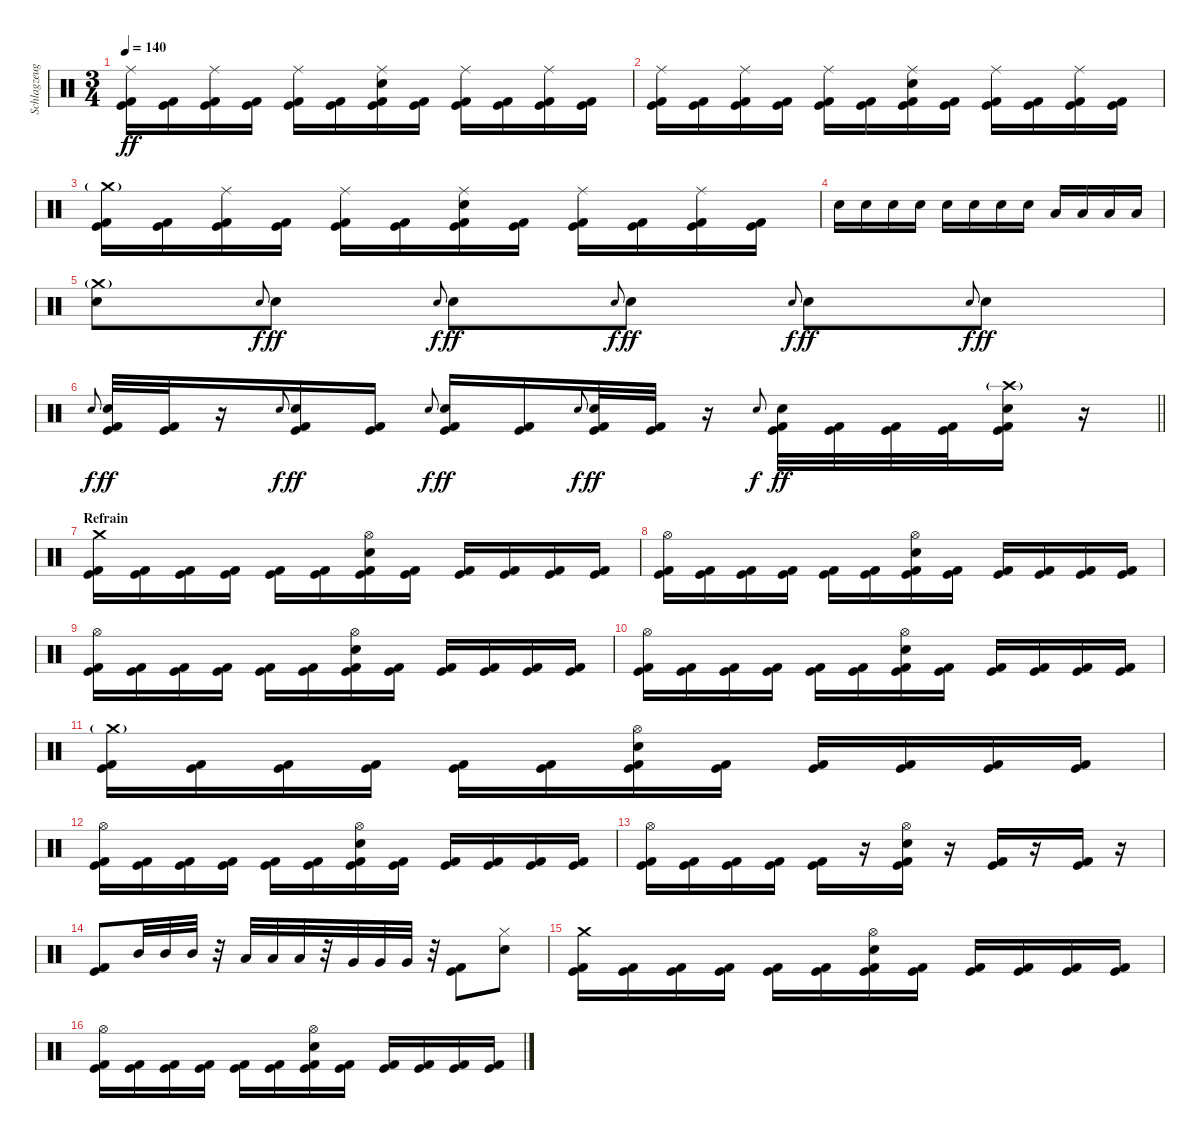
\track ("Schlagzeug" "Schlagzeug") {instrument percussion}
\staff {score}
\articulation defaults
\ts (3 4)
\tempo 140
\clef neutral
\ks c
("Ride (middle)" "Kick (hit)" "Kick (hit) 2").16{dy ff} ("Kick (hit)" "Kick (hit) 2").16 ("Ride (middle)" "Kick (hit)" "Kick (hit) 2").16 ("Kick (hit)" "Kick (hit) 2").16 ("Ride (middle)" "Kick (hit)" "Kick (hit) 2").16 ("Kick (hit)" "Kick (hit) 2").16 ("Ride (middle)" "Kick (hit)" "Kick (hit) 2" "Electric Snare (hit)").16 ("Kick (hit)" "Kick (hit) 2").16 ("Ride (middle)" "Kick (hit)" "Kick (hit) 2").16 ("Kick (hit)" "Kick (hit) 2").16 ("Ride (middle)" "Kick (hit)" "Kick (hit) 2").16 ("Kick (hit)" "Kick (hit) 2").16 |
("Ride (middle)" "Kick (hit)" "Kick (hit) 2").16 ("Kick (hit)" "Kick (hit) 2").16 ("Ride (middle)" "Kick (hit)" "Kick (hit) 2").16 ("Kick (hit)" "Kick (hit) 2").16 ("Ride (middle)" "Kick (hit)" "Kick (hit) 2").16 ("Kick (hit)" "Kick (hit) 2").16 ("Ride (middle)" "Kick (hit)" "Kick (hit) 2" "Electric Snare (hit)").16 ("Kick (hit)" "Kick (hit) 2").16 ("Ride (middle)" "Kick (hit)" "Kick (hit) 2").16 ("Kick (hit)" "Kick (hit) 2").16 ("Ride (middle)" "Kick (hit)" "Kick (hit) 2").16 ("Kick (hit)" "Kick (hit) 2").16 |
("Crash medium (hit)"{g} "Kick (hit)" "Kick (hit) 2").16 ("Kick (hit)" "Kick (hit) 2").16 ("Ride (middle)" "Kick (hit)" "Kick (hit) 2").16 ("Kick (hit)" "Kick (hit) 2").16 ("Ride (middle)" "Kick (hit)" "Kick (hit) 2").16 ("Kick (hit)" "Kick (hit) 2").16 ("Ride (middle)" "Kick (hit)" "Kick (hit) 2" "Electric Snare (hit)").16 ("Kick (hit)" "Kick (hit) 2").16 ("Ride (middle)" "Kick (hit)" "Kick (hit) 2").16 ("Kick (hit)" "Kick (hit) 2").16 ("Ride (middle)" "Kick (hit)" "Kick (hit) 2").16 ("Kick (hit)" "Kick (hit) 2").16 |
"Electric Snare (hit)".16 "Electric Snare (hit)".16 "Electric Snare (hit)".16 "Electric Snare (hit)".16 "Electric Snare (hit)".16 "Electric Snare (hit)".16 "Electric Snare (hit)".16 "Electric Snare (hit)".16 "Low Tom (hit)".16 "Low Tom (hit)".16 "Low Floor Tom (hit)".16 "Low Floor Tom (hit)".16 |
("Crash medium (hit)"{g} "Electric Snare (hit)").8 "Electric Snare (hit)".8{gr onbeat dy f} "Electric Snare (hit)".8{dy ff} "Electric Snare (hit)".8{gr onbeat dy f} "Electric Snare (hit)".8{dy ff} "Electric Snare (hit)".8{gr onbeat dy f} "Electric Snare (hit)".8{dy ff} "Electric Snare (hit)".8{gr onbeat dy f} "Electric Snare (hit)".8{dy ff} "Electric Snare (hit)".8{gr onbeat dy f} "Electric Snare (hit)".8{dy ff} |
\barLineRight lightlight "Electric Snare (hit)".8{gr onbeat dy f}
("Kick (hit)" "Kick (hit) 2" "Electric Snare (hit)").32{dy ff} ("Kick (hit)" "Kick (hit) 2").32 r.16 "Electric Snare (hit)".8{gr onbeat dy f} ("Kick (hit)" "Kick (hit) 2" "Electric Snare (hit)").16{dy ff} ("Kick (hit)" "Kick (hit) 2").16 "Electric Snare (hit)".8{gr onbeat dy f} ("Kick (hit)" "Kick (hit) 2" "Electric Snare (hit)").16{dy ff} ("Kick (hit)" "Kick (hit) 2").16 "Electric Snare (hit)".8{gr onbeat dy f} ("Kick (hit)" "Kick (hit) 2" "Electric Snare (hit)").32{dy ff} ("Kick (hit)" "Kick (hit) 2").32 r.16 "Electric Snare (hit)".8{gr onbeat dy f} ("Kick (hit)" "Kick (hit) 2" "Electric Snare (hit)").32{dy ff} ("Kick (hit)" "Kick (hit) 2").32 ("Kick (hit)" "Kick (hit) 2").32 ("Kick (hit)" "Kick (hit) 2").32 ("Crash high (hit)"{g} "Kick (hit)" "Kick (hit) 2" "Electric Snare (hit)").16 r.16 |
\section ("" "Refrain")
("Crash medium (hit)" "Kick (hit)" "Kick (hit) 2").16 ("Kick (hit)" "Kick (hit) 2").16 ("Kick (hit)" "Kick (hit) 2").16 ("Kick (hit)" "Kick (hit) 2").16 ("Kick (hit)" "Kick (hit) 2").16 ("Kick (hit)" "Kick (hit) 2").16 ("Hi-Hat (open)" "Kick (hit)" "Kick (hit) 2" "Electric Snare (hit)").16 ("Kick (hit)" "Kick (hit) 2").16 ("Kick (hit)" "Kick (hit) 2").16 ("Kick (hit)" "Kick (hit) 2").16 ("Kick (hit)" "Kick (hit) 2").16 ("Kick (hit)" "Kick (hit) 2").16 |
("Hi-Hat (open)" "Kick (hit)" "Kick (hit) 2").16 ("Kick (hit)" "Kick (hit) 2").16 ("Kick (hit)" "Kick (hit) 2").16 ("Kick (hit)" "Kick (hit) 2").16 ("Kick (hit)" "Kick (hit) 2").16 ("Kick (hit)" "Kick (hit) 2").16 ("Hi-Hat (open)" "Kick (hit)" "Kick (hit) 2" "Electric Snare (hit)").16 ("Kick (hit)" "Kick (hit) 2").16 ("Kick (hit)" "Kick (hit) 2").16 ("Kick (hit)" "Kick (hit) 2").16 ("Kick (hit)" "Kick (hit) 2").16 ("Kick (hit)" "Kick (hit) 2").16 |
("Hi-Hat (open)" "Kick (hit)" "Kick (hit) 2").16 ("Kick (hit)" "Kick (hit) 2").16 ("Kick (hit)" "Kick (hit) 2").16 ("Kick (hit)" "Kick (hit) 2").16 ("Kick (hit)" "Kick (hit) 2").16 ("Kick (hit)" "Kick (hit) 2").16 ("Hi-Hat (open)" "Kick (hit)" "Kick (hit) 2" "Electric Snare (hit)").16 ("Kick (hit)" "Kick (hit) 2").16 ("Kick (hit)" "Kick (hit) 2").16 ("Kick (hit)" "Kick (hit) 2").16 ("Kick (hit)" "Kick (hit) 2").16 ("Kick (hit)" "Kick (hit) 2").16 |
("Hi-Hat (open)" "Kick (hit)" "Kick (hit) 2").16 ("Kick (hit)" "Kick (hit) 2").16 ("Kick (hit)" "Kick (hit) 2").16 ("Kick (hit)" "Kick (hit) 2").16 ("Kick (hit)" "Kick (hit) 2").16 ("Kick (hit)" "Kick (hit) 2").16 ("Hi-Hat (open)" "Kick (hit)" "Kick (hit) 2" "Electric Snare (hit)").16 ("Kick (hit)" "Kick (hit) 2").16 ("Kick (hit)" "Kick (hit) 2").16 ("Kick (hit)" "Kick (hit) 2").16 ("Kick (hit)" "Kick (hit) 2").16 ("Kick (hit)" "Kick (hit) 2").16 |
("Crash medium (hit)"{g} "Kick (hit)" "Kick (hit) 2").16 ("Kick (hit)" "Kick (hit) 2").16 ("Kick (hit)" "Kick (hit) 2").16 ("Kick (hit)" "Kick (hit) 2").16 ("Kick (hit)" "Kick (hit) 2").16 ("Kick (hit)" "Kick (hit) 2").16 ("Hi-Hat (open)" "Kick (hit)" "Kick (hit) 2" "Electric Snare (hit)").16 ("Kick (hit)" "Kick (hit) 2").16 ("Kick (hit)" "Kick (hit) 2").16 ("Kick (hit)" "Kick (hit) 2").16 ("Kick (hit)" "Kick (hit) 2").16 ("Kick (hit)" "Kick (hit) 2").16 |
("Hi-Hat (open)" "Kick (hit)" "Kick (hit) 2").16 ("Kick (hit)" "Kick (hit) 2").16 ("Kick (hit)" "Kick (hit) 2").16 ("Kick (hit)" "Kick (hit) 2").16 ("Kick (hit)" "Kick (hit) 2").16 ("Kick (hit)" "Kick (hit) 2").16 ("Hi-Hat (open)" "Kick (hit)" "Kick (hit) 2" "Electric Snare (hit)").16 ("Kick (hit)" "Kick (hit) 2").16 ("Kick (hit)" "Kick (hit) 2").16 ("Kick (hit)" "Kick (hit) 2").16 ("Kick (hit)" "Kick (hit) 2").16 ("Kick (hit)" "Kick (hit) 2").16 |
("Hi-Hat (open)" "Kick (hit)" "Kick (hit) 2").16 ("Kick (hit)" "Kick (hit) 2").16 ("Kick (hit)" "Kick (hit) 2").16 ("Kick (hit)" "Kick (hit) 2").16 ("Kick (hit)" "Kick (hit) 2").16 r.16 ("Hi-Hat (open)" "Kick (hit)" "Kick (hit) 2" "Electric Snare (hit)").16 r.16 ("Kick (hit)" "Kick (hit) 2").16 r.16 ("Kick (hit)" "Kick (hit) 2").16 r.16 |
("Kick (hit)" "Kick (hit) 2").8 "Mid Tom (hit)".32 "Mid Tom (hit)".32 "Mid Tom (hit)".32 r.32 "Low Tom (hit)".32 "Low Tom (hit)".32 "Low Tom (hit)".32 r.32 "Very Low Tom (hit)".32 "Very Low Tom (hit)".32 "Very Low Tom (hit)".32 r.32 ("Kick (hit)" "Kick (hit) 2").8 ("Hi-Hat (closed)" "Electric Snare (hit)").8 |
("Crash medium (hit)" "Kick (hit)" "Kick (hit) 2").16 ("Kick (hit)" "Kick (hit) 2").16 ("Kick (hit)" "Kick (hit) 2").16 ("Kick (hit)" "Kick (hit) 2").16 ("Kick (hit)" "Kick (hit) 2").16 ("Kick (hit)" "Kick (hit) 2").16 ("Hi-Hat (open)" "Kick (hit)" "Kick (hit) 2" "Electric Snare (hit)").16 ("Kick (hit)" "Kick (hit) 2").16 ("Kick (hit)" "Kick (hit) 2").16 ("Kick (hit)" "Kick (hit) 2").16 ("Kick (hit)" "Kick (hit) 2").16 ("Kick (hit)" "Kick (hit) 2").16 |
("Hi-Hat (open)" "Kick (hit)" "Kick (hit) 2").16 ("Kick (hit)" "Kick (hit) 2").16 ("Kick (hit)" "Kick (hit) 2").16 ("Kick (hit)" "Kick (hit) 2").16 ("Kick (hit)" "Kick (hit) 2").16 ("Kick (hit)" "Kick (hit) 2").16 ("Hi-Hat (open)" "Kick (hit)" "Kick (hit) 2" "Electric Snare (hit)").16 ("Kick (hit)" "Kick (hit) 2").16 ("Kick (hit)" "Kick (hit) 2").16 ("Kick (hit)" "Kick (hit) 2").16 ("Kick (hit)" "Kick (hit) 2").16 ("Kick (hit)" "Kick (hit) 2").16
